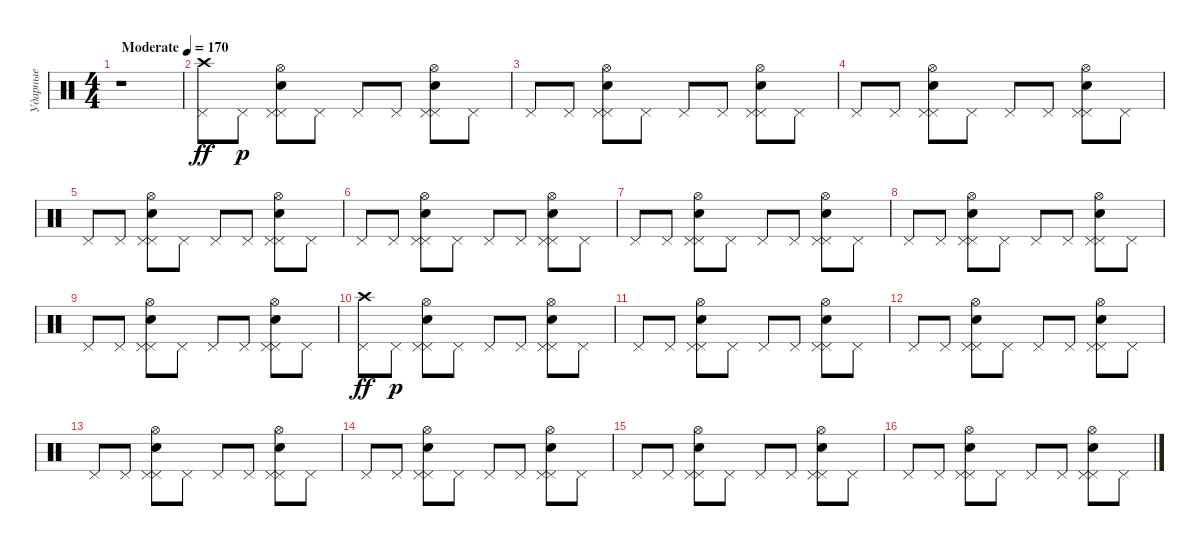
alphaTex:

\track ("Ударные" "Ударные") {instrument percussion}
\staff {score}
\articulation defaults
\ts (4 4)
\tempo (170 "Moderate")
\clef neutral
\ks c
r.1{dy ff} |
("Pedal Hi-Hat (hit)" "Crash high (hit)").8 "Pedal Hi-Hat (hit)".8{dy p} ("Pedal Hi-Hat (hit)" "Snare (hit) 2" "Pedal Hi-Hat (hit)" "Hi-Hat (open)").8 "Pedal Hi-Hat (hit)".8 "Pedal Hi-Hat (hit)".8 "Pedal Hi-Hat (hit)".8 ("Pedal Hi-Hat (hit)" "Snare (hit) 2" "Pedal Hi-Hat (hit)" "Hi-Hat (open)").8 "Pedal Hi-Hat (hit)".8 |
"Pedal Hi-Hat (hit)".8 "Pedal Hi-Hat (hit)".8 ("Pedal Hi-Hat (hit)" "Snare (hit) 2" "Pedal Hi-Hat (hit)" "Hi-Hat (open)").8 "Pedal Hi-Hat (hit)".8 "Pedal Hi-Hat (hit)".8 "Pedal Hi-Hat (hit)".8 ("Pedal Hi-Hat (hit)" "Snare (hit) 2" "Pedal Hi-Hat (hit)" "Hi-Hat (open)").8 "Pedal Hi-Hat (hit)".8 |
"Pedal Hi-Hat (hit)".8 "Pedal Hi-Hat (hit)".8 ("Pedal Hi-Hat (hit)" "Snare (hit) 2" "Pedal Hi-Hat (hit)" "Hi-Hat (open)").8 "Pedal Hi-Hat (hit)".8 "Pedal Hi-Hat (hit)".8 "Pedal Hi-Hat (hit)".8 ("Pedal Hi-Hat (hit)" "Snare (hit) 2" "Pedal Hi-Hat (hit)" "Hi-Hat (open)").8 "Pedal Hi-Hat (hit)".8 |
"Pedal Hi-Hat (hit)".8 "Pedal Hi-Hat (hit)".8 ("Pedal Hi-Hat (hit)" "Snare (hit) 2" "Pedal Hi-Hat (hit)" "Hi-Hat (open)").8 "Pedal Hi-Hat (hit)".8 "Pedal Hi-Hat (hit)".8 "Pedal Hi-Hat (hit)".8 ("Pedal Hi-Hat (hit)" "Snare (hit) 2" "Pedal Hi-Hat (hit)" "Hi-Hat (open)").8 "Pedal Hi-Hat (hit)".8 |
"Pedal Hi-Hat (hit)".8 "Pedal Hi-Hat (hit)".8 ("Pedal Hi-Hat (hit)" "Snare (hit) 2" "Pedal Hi-Hat (hit)" "Hi-Hat (open)").8 "Pedal Hi-Hat (hit)".8 "Pedal Hi-Hat (hit)".8 "Pedal Hi-Hat (hit)".8 ("Pedal Hi-Hat (hit)" "Snare (hit) 2" "Pedal Hi-Hat (hit)" "Hi-Hat (open)").8 "Pedal Hi-Hat (hit)".8 |
"Pedal Hi-Hat (hit)".8 "Pedal Hi-Hat (hit)".8 ("Pedal Hi-Hat (hit)" "Snare (hit) 2" "Pedal Hi-Hat (hit)" "Hi-Hat (open)").8 "Pedal Hi-Hat (hit)".8 "Pedal Hi-Hat (hit)".8 "Pedal Hi-Hat (hit)".8 ("Pedal Hi-Hat (hit)" "Snare (hit) 2" "Pedal Hi-Hat (hit)" "Hi-Hat (open)").8 "Pedal Hi-Hat (hit)".8 |
"Pedal Hi-Hat (hit)".8 "Pedal Hi-Hat (hit)".8 ("Pedal Hi-Hat (hit)" "Snare (hit) 2" "Pedal Hi-Hat (hit)" "Hi-Hat (open)").8 "Pedal Hi-Hat (hit)".8 "Pedal Hi-Hat (hit)".8 "Pedal Hi-Hat (hit)".8 ("Pedal Hi-Hat (hit)" "Snare (hit) 2" "Pedal Hi-Hat (hit)" "Hi-Hat (open)").8 "Pedal Hi-Hat (hit)".8 |
"Pedal Hi-Hat (hit)".8 "Pedal Hi-Hat (hit)".8 ("Pedal Hi-Hat (hit)" "Snare (hit) 2" "Pedal Hi-Hat (hit)" "Hi-Hat (open)").8 "Pedal Hi-Hat (hit)".8 "Pedal Hi-Hat (hit)".8 "Pedal Hi-Hat (hit)".8 ("Pedal Hi-Hat (hit)" "Snare (hit) 2" "Pedal Hi-Hat (hit)" "Hi-Hat (open)").8 "Pedal Hi-Hat (hit)".8 |
("Pedal Hi-Hat (hit)" "Crash high (hit)").8{dy ff} "Pedal Hi-Hat (hit)".8{dy p} ("Pedal Hi-Hat (hit)" "Snare (hit) 2" "Pedal Hi-Hat (hit)" "Hi-Hat (open)").8 "Pedal Hi-Hat (hit)".8 "Pedal Hi-Hat (hit)".8 "Pedal Hi-Hat (hit)".8 ("Pedal Hi-Hat (hit)" "Snare (hit) 2" "Pedal Hi-Hat (hit)" "Hi-Hat (open)").8 "Pedal Hi-Hat (hit)".8 |
"Pedal Hi-Hat (hit)".8 "Pedal Hi-Hat (hit)".8 ("Pedal Hi-Hat (hit)" "Snare (hit) 2" "Pedal Hi-Hat (hit)" "Hi-Hat (open)").8 "Pedal Hi-Hat (hit)".8 "Pedal Hi-Hat (hit)".8 "Pedal Hi-Hat (hit)".8 ("Pedal Hi-Hat (hit)" "Snare (hit) 2" "Pedal Hi-Hat (hit)" "Hi-Hat (open)").8 "Pedal Hi-Hat (hit)".8 |
"Pedal Hi-Hat (hit)".8 "Pedal Hi-Hat (hit)".8 ("Pedal Hi-Hat (hit)" "Snare (hit) 2" "Pedal Hi-Hat (hit)" "Hi-Hat (open)").8 "Pedal Hi-Hat (hit)".8 "Pedal Hi-Hat (hit)".8 "Pedal Hi-Hat (hit)".8 ("Pedal Hi-Hat (hit)" "Snare (hit) 2" "Pedal Hi-Hat (hit)" "Hi-Hat (open)").8 "Pedal Hi-Hat (hit)".8 |
"Pedal Hi-Hat (hit)".8 "Pedal Hi-Hat (hit)".8 ("Pedal Hi-Hat (hit)" "Snare (hit) 2" "Pedal Hi-Hat (hit)" "Hi-Hat (open)").8 "Pedal Hi-Hat (hit)".8 "Pedal Hi-Hat (hit)".8 "Pedal Hi-Hat (hit)".8 ("Pedal Hi-Hat (hit)" "Snare (hit) 2" "Pedal Hi-Hat (hit)" "Hi-Hat (open)").8 "Pedal Hi-Hat (hit)".8 |
"Pedal Hi-Hat (hit)".8 "Pedal Hi-Hat (hit)".8 ("Pedal Hi-Hat (hit)" "Snare (hit) 2" "Pedal Hi-Hat (hit)" "Hi-Hat (open)").8 "Pedal Hi-Hat (hit)".8 "Pedal Hi-Hat (hit)".8 "Pedal Hi-Hat (hit)".8 ("Pedal Hi-Hat (hit)" "Snare (hit) 2" "Pedal Hi-Hat (hit)" "Hi-Hat (open)").8 "Pedal Hi-Hat (hit)".8 |
"Pedal Hi-Hat (hit)".8 "Pedal Hi-Hat (hit)".8 ("Pedal Hi-Hat (hit)" "Snare (hit) 2" "Pedal Hi-Hat (hit)" "Hi-Hat (open)").8 "Pedal Hi-Hat (hit)".8 "Pedal Hi-Hat (hit)".8 "Pedal Hi-Hat (hit)".8 ("Pedal Hi-Hat (hit)" "Snare (hit) 2" "Pedal Hi-Hat (hit)" "Hi-Hat (open)").8 "Pedal Hi-Hat (hit)".8 |
"Pedal Hi-Hat (hit)".8 "Pedal Hi-Hat (hit)".8 ("Pedal Hi-Hat (hit)" "Snare (hit) 2" "Pedal Hi-Hat (hit)" "Hi-Hat (open)").8 "Pedal Hi-Hat (hit)".8 "Pedal Hi-Hat (hit)".8 "Pedal Hi-Hat (hit)".8 ("Pedal Hi-Hat (hit)" "Snare (hit) 2" "Pedal Hi-Hat (hit)" "Hi-Hat (open)").8 "Pedal Hi-Hat (hit)".8
